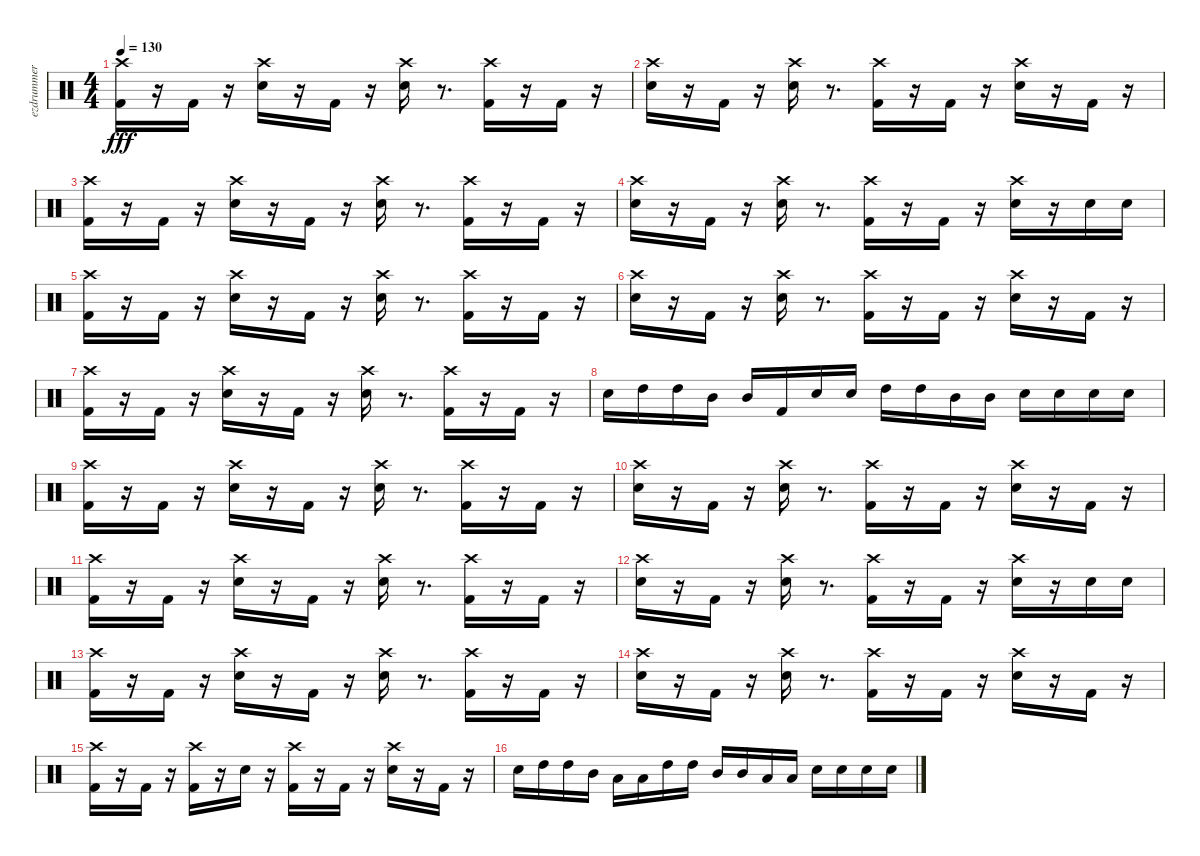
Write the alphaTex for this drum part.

\track ("ezdrummer 01" "ezdrummer ") {instrument percussion}
\staff {score}
\articulation defaults
\ts (4 4)
\tempo 130
\clef neutral
\ks c
("Kick (hit) 2" "Crash high (hit)").16{dy fff} r.16 "Kick (hit) 2".16 r.16 ("Snare (hit) 2" "Crash high (hit)").16 r.16 "Kick (hit) 2".16 r.16 ("Snare (hit) 2" "Crash high (hit)").16 r.8{d} ("Kick (hit) 2" "Crash high (hit)").16 r.16 "Kick (hit) 2".16 r.16 |
("Snare (hit) 2" "Crash high (hit)").16 r.16 "Kick (hit) 2".16 r.16 ("Snare (hit) 2" "Crash high (hit)").16 r.8{d} ("Kick (hit) 2" "Crash high (hit)").16 r.16 "Kick (hit) 2".16 r.16 ("Snare (hit) 2" "Crash high (hit)").16 r.16 "Kick (hit) 2".16 r.16 |
("Kick (hit) 2" "Crash high (hit)").16 r.16 "Kick (hit) 2".16 r.16 ("Snare (hit) 2" "Crash high (hit)").16 r.16 "Kick (hit) 2".16 r.16 ("Snare (hit) 2" "Crash high (hit)").16 r.8{d} ("Kick (hit) 2" "Crash high (hit)").16 r.16 "Kick (hit) 2".16 r.16 |
("Snare (hit) 2" "Crash high (hit)").16 r.16 "Kick (hit) 2".16 r.16 ("Snare (hit) 2" "Crash high (hit)").16 r.8{d} ("Kick (hit) 2" "Crash high (hit)").16 r.16 "Kick (hit) 2".16 r.16 ("Snare (hit) 2" "Crash high (hit)").16 r.16 "Snare (hit) 2".16 "Snare (hit) 2".16 |
("Kick (hit) 2" "Crash high (hit)").16 r.16 "Kick (hit) 2".16 r.16 ("Snare (hit) 2" "Crash high (hit)").16 r.16 "Kick (hit) 2".16 r.16 ("Snare (hit) 2" "Crash high (hit)").16 r.8{d} ("Kick (hit) 2" "Crash high (hit)").16 r.16 "Kick (hit) 2".16 r.16 |
("Snare (hit) 2" "Crash high (hit)").16 r.16 "Kick (hit) 2".16 r.16 ("Snare (hit) 2" "Crash high (hit)").16 r.8{d} ("Kick (hit) 2" "Crash high (hit)").16 r.16 "Kick (hit) 2".16 r.16 ("Snare (hit) 2" "Crash high (hit)").16 r.16 "Kick (hit) 2".16 r.16 |
("Kick (hit) 2" "Crash high (hit)").16 r.16 "Kick (hit) 2".16 r.16 ("Snare (hit) 2" "Crash high (hit)").16 r.16 "Kick (hit) 2".16 r.16 ("Snare (hit) 2" "Crash high (hit)").16 r.8{d} ("Kick (hit) 2" "Crash high (hit)").16 r.16 "Kick (hit) 2".16 r.16 |
"Snare (hit) 2".16 "High Tom (hit)".16 "High Tom (hit)".16 "Mid Tom (hit)".16 "Mid Tom (hit)".16 "Kick (hit) 2".16 "Snare (hit) 2".16 "Snare (hit) 2".16 "High Tom (hit)".16 "High Tom (hit)".16 "Mid Tom (hit)".16 "Mid Tom (hit)".16 "Snare (hit) 2".16 "Snare (hit) 2".16 "Snare (hit) 2".16 "Snare (hit) 2".16 |
("Kick (hit) 2" "Crash high (hit)").16 r.16 "Kick (hit) 2".16 r.16 ("Snare (hit) 2" "Crash high (hit)").16 r.16 "Kick (hit) 2".16 r.16 ("Snare (hit) 2" "Crash high (hit)").16 r.8{d} ("Kick (hit) 2" "Crash high (hit)").16 r.16 "Kick (hit) 2".16 r.16 |
("Snare (hit) 2" "Crash high (hit)").16 r.16 "Kick (hit) 2".16 r.16 ("Snare (hit) 2" "Crash high (hit)").16 r.8{d} ("Kick (hit) 2" "Crash high (hit)").16 r.16 "Kick (hit) 2".16 r.16 ("Snare (hit) 2" "Crash high (hit)").16 r.16 "Kick (hit) 2".16 r.16 |
("Kick (hit) 2" "Crash high (hit)").16 r.16 "Kick (hit) 2".16 r.16 ("Snare (hit) 2" "Crash high (hit)").16 r.16 "Kick (hit) 2".16 r.16 ("Snare (hit) 2" "Crash high (hit)").16 r.8{d} ("Kick (hit) 2" "Crash high (hit)").16 r.16 "Kick (hit) 2".16 r.16 |
("Snare (hit) 2" "Crash high (hit)").16 r.16 "Kick (hit) 2".16 r.16 ("Snare (hit) 2" "Crash high (hit)").16 r.8{d} ("Kick (hit) 2" "Crash high (hit)").16 r.16 "Kick (hit) 2".16 r.16 ("Snare (hit) 2" "Crash high (hit)").16 r.16 "Snare (hit) 2".16 "Snare (hit) 2".16 |
("Kick (hit) 2" "Crash high (hit)").16 r.16 "Kick (hit) 2".16 r.16 ("Snare (hit) 2" "Crash high (hit)").16 r.16 "Kick (hit) 2".16 r.16 ("Snare (hit) 2" "Crash high (hit)").16 r.8{d} ("Kick (hit) 2" "Crash high (hit)").16 r.16 "Kick (hit) 2".16 r.16 |
("Snare (hit) 2" "Crash high (hit)").16 r.16 "Kick (hit) 2".16 r.16 ("Snare (hit) 2" "Crash high (hit)").16 r.8{d} ("Kick (hit) 2" "Crash high (hit)").16 r.16 "Kick (hit) 2".16 r.16 ("Snare (hit) 2" "Crash high (hit)").16 r.16 "Kick (hit) 2".16 r.16 |
("Kick (hit) 2" "Crash high (hit)").16 r.16 "Kick (hit) 2".16 r.16 ("Kick (hit) 2" "Crash high (hit)").16 r.16 "Snare (hit) 2".16 r.16 ("Kick (hit) 2" "Crash high (hit)").16 r.16 "Kick (hit) 2".16 r.16 ("Snare (hit) 2" "Crash high (hit)").16 r.16 "Kick (hit) 2".16 r.16 |
"Snare (hit) 2".16 "High Tom (hit)".16 "High Tom (hit)".16 "Mid Tom (hit)".16 "Low Tom (hit)".16 "Low Tom (hit)".16 "High Tom (hit)".16 "High Tom (hit)".16 "Mid Tom (hit)".16 "Mid Tom (hit)".16 "Low Tom (hit)".16 "Low Tom (hit)".16 "Snare (hit) 2".16 "Snare (hit) 2".16 "Snare (hit) 2".16 "Snare (hit) 2".16
